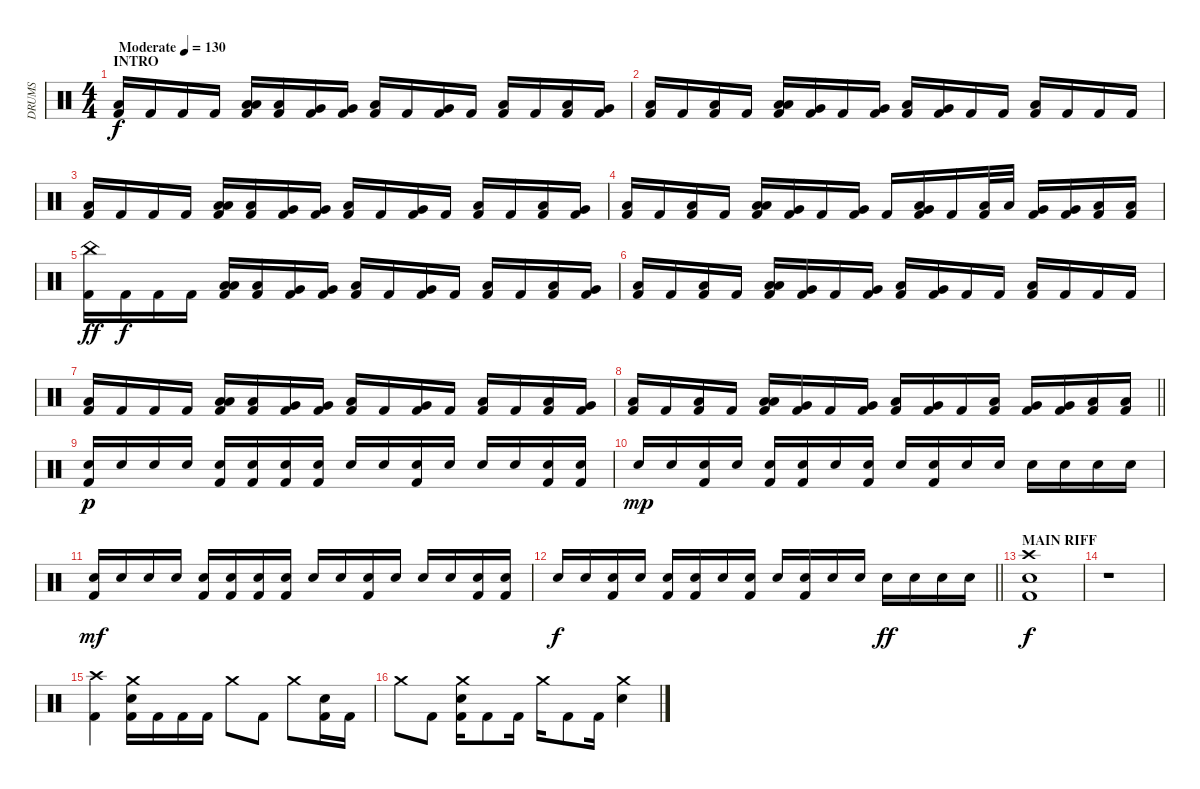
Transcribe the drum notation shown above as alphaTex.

\track ("DRUMS" "DRUMS") {instrument percussion}
\staff {score}
\articulation defaults
\ts (4 4)
\section ("" "INTRO")
\tempo (130 "Moderate")
\clef neutral
\ks c
("Low Floor Tom (hit)" "Kick (hit) 2").16{dy f} "Kick (hit) 2".16 "Kick (hit) 2".16 "Kick (hit) 2".16 ("Low Tom (hit)" "Low Floor Tom (hit)" "Kick (hit) 2").16 ("Low Tom (hit)" "Kick (hit) 2").16 ("Very Low Tom (hit)" "Kick (hit) 2").16 ("Very Low Tom (hit)" "Kick (hit) 2").16 ("Low Floor Tom (hit)" "Kick (hit) 2").16 "Kick (hit) 2".16 ("Very Low Tom (hit)" "Kick (hit) 2").16 "Kick (hit) 2".16 ("Low Floor Tom (hit)" "Kick (hit) 2").16 "Kick (hit) 2".16 ("Low Tom (hit)" "Kick (hit) 2").16 ("Very Low Tom (hit)" "Kick (hit) 2").16 |
("Low Floor Tom (hit)" "Kick (hit) 2").16 "Kick (hit) 2".16 ("Low Tom (hit)" "Kick (hit) 2").16 "Kick (hit) 2".16 ("Low Tom (hit)" "Low Floor Tom (hit)" "Kick (hit) 2").16 ("Very Low Tom (hit)" "Kick (hit) 2").16 "Kick (hit) 2".16 ("Very Low Tom (hit)" "Kick (hit) 2").16 ("Low Floor Tom (hit)" "Kick (hit) 2").16 ("Very Low Tom (hit)" "Kick (hit) 2").16 "Kick (hit) 2".16 "Kick (hit) 2".16 ("Low Floor Tom (hit)" "Kick (hit) 2").16 "Kick (hit) 2".16 "Kick (hit) 2".16 "Kick (hit) 2".16 |
("Low Floor Tom (hit)" "Kick (hit) 2").16 "Kick (hit) 2".16 "Kick (hit) 2".16 "Kick (hit) 2".16 ("Low Tom (hit)" "Low Floor Tom (hit)" "Kick (hit) 2").16 ("Low Tom (hit)" "Kick (hit) 2").16 ("Very Low Tom (hit)" "Kick (hit) 2").16 ("Very Low Tom (hit)" "Kick (hit) 2").16 ("Low Floor Tom (hit)" "Kick (hit) 2").16 "Kick (hit) 2".16 ("Very Low Tom (hit)" "Kick (hit) 2").16 "Kick (hit) 2".16 ("Low Floor Tom (hit)" "Kick (hit) 2").16 "Kick (hit) 2".16 ("Low Tom (hit)" "Kick (hit) 2").16 ("Very Low Tom (hit)" "Kick (hit) 2").16 |
("Low Floor Tom (hit)" "Kick (hit) 2").16 "Kick (hit) 2".16 ("Low Tom (hit)" "Kick (hit) 2").16 "Kick (hit) 2".16 ("Low Tom (hit)" "Low Floor Tom (hit)" "Kick (hit) 2").16 ("Very Low Tom (hit)" "Kick (hit) 2").16 "Kick (hit) 2".16 ("Very Low Tom (hit)" "Kick (hit) 2").16 "Kick (hit) 2".16 ("Very Low Tom (hit)" "Low Floor Tom (hit)" "Kick (hit) 2").16 "Kick (hit) 2".16 ("Low Tom (hit)" "Kick (hit) 2").32 "Low Tom (hit)".32 ("Very Low Tom (hit)" "Kick (hit) 2").16 ("Very Low Tom (hit)" "Kick (hit) 2").16 ("Low Floor Tom (hit)" "Kick (hit) 2").16 ("Low Floor Tom (hit)" "Kick (hit) 2").16 |
("China (hit)" "Kick (hit) 2").16{dy ff} "Kick (hit) 2".16{dy f} "Kick (hit) 2".16 "Kick (hit) 2".16 ("Low Tom (hit)" "Low Floor Tom (hit)" "Kick (hit) 2").16 ("Low Tom (hit)" "Kick (hit) 2").16 ("Very Low Tom (hit)" "Kick (hit) 2").16 ("Very Low Tom (hit)" "Kick (hit) 2").16 ("Low Floor Tom (hit)" "Kick (hit) 2").16 "Kick (hit) 2".16 ("Very Low Tom (hit)" "Kick (hit) 2").16 "Kick (hit) 2".16 ("Low Floor Tom (hit)" "Kick (hit) 2").16 "Kick (hit) 2".16 ("Low Tom (hit)" "Kick (hit) 2").16 ("Very Low Tom (hit)" "Kick (hit) 2").16 |
("Low Floor Tom (hit)" "Kick (hit) 2").16 "Kick (hit) 2".16 ("Low Tom (hit)" "Kick (hit) 2").16 "Kick (hit) 2".16 ("Low Tom (hit)" "Low Floor Tom (hit)" "Kick (hit) 2").16 ("Very Low Tom (hit)" "Kick (hit) 2").16 "Kick (hit) 2".16 ("Very Low Tom (hit)" "Kick (hit) 2").16 ("Low Floor Tom (hit)" "Kick (hit) 2").16 ("Very Low Tom (hit)" "Kick (hit) 2").16 "Kick (hit) 2".16 "Kick (hit) 2".16 ("Low Floor Tom (hit)" "Kick (hit) 2").16 "Kick (hit) 2".16 "Kick (hit) 2".16 "Kick (hit) 2".16 |
("Low Floor Tom (hit)" "Kick (hit) 2").16 "Kick (hit) 2".16 "Kick (hit) 2".16 "Kick (hit) 2".16 ("Low Tom (hit)" "Low Floor Tom (hit)" "Kick (hit) 2").16 ("Low Tom (hit)" "Kick (hit) 2").16 ("Very Low Tom (hit)" "Kick (hit) 2").16 ("Very Low Tom (hit)" "Kick (hit) 2").16 ("Low Floor Tom (hit)" "Kick (hit) 2").16 "Kick (hit) 2".16 ("Very Low Tom (hit)" "Kick (hit) 2").16 "Kick (hit) 2".16 ("Low Floor Tom (hit)" "Kick (hit) 2").16 "Kick (hit) 2".16 ("Low Tom (hit)" "Kick (hit) 2").16 ("Very Low Tom (hit)" "Kick (hit) 2").16 |
\barLineRight lightlight
("Low Floor Tom (hit)" "Kick (hit) 2").16 "Kick (hit) 2".16 ("Low Tom (hit)" "Kick (hit) 2").16 "Kick (hit) 2".16 ("Low Tom (hit)" "Low Floor Tom (hit)" "Kick (hit) 2").16 ("Very Low Tom (hit)" "Kick (hit) 2").16 "Kick (hit) 2".16 ("Very Low Tom (hit)" "Kick (hit) 2").16 ("Low Floor Tom (hit)" "Kick (hit) 2").16 ("Very Low Tom (hit)" "Kick (hit) 2").16 "Kick (hit) 2".16 ("Low Tom (hit)" "Kick (hit) 2").16 ("Very Low Tom (hit)" "Kick (hit) 2").16 ("Very Low Tom (hit)" "Kick (hit) 2").16 ("Low Floor Tom (hit)" "Kick (hit) 2").16 ("Low Floor Tom (hit)" "Kick (hit) 2").16 |
("Electric Snare (hit)" "Kick (hit) 2").16{dy p} "Electric Snare (hit)".16 "Electric Snare (hit)".16 "Electric Snare (hit)".16 ("Electric Snare (hit)" "Kick (hit) 2").16 ("Electric Snare (hit)" "Kick (hit) 2").16 ("Electric Snare (hit)" "Kick (hit) 2").16 ("Electric Snare (hit)" "Kick (hit) 2").16 "Electric Snare (hit)".16 "Electric Snare (hit)".16 ("Electric Snare (hit)" "Kick (hit) 2").16 "Electric Snare (hit)".16 "Electric Snare (hit)".16 "Electric Snare (hit)".16 ("Electric Snare (hit)" "Kick (hit) 2").16 ("Electric Snare (hit)" "Kick (hit) 2").16 |
"Electric Snare (hit)".16{dy mp} "Electric Snare (hit)".16 ("Electric Snare (hit)" "Kick (hit) 2").16 "Electric Snare (hit)".16 ("Electric Snare (hit)" "Kick (hit) 2").16 ("Electric Snare (hit)" "Kick (hit) 2").16 "Electric Snare (hit)".16 ("Electric Snare (hit)" "Kick (hit) 2").16 "Electric Snare (hit)".16 ("Electric Snare (hit)" "Kick (hit) 2").16 "Electric Snare (hit)".16 "Electric Snare (hit)".16 "Electric Snare (hit)".16 "Electric Snare (hit)".16 "Electric Snare (hit)".16 "Electric Snare (hit)".16 |
("Electric Snare (hit)" "Kick (hit) 2").16{dy mf} "Electric Snare (hit)".16 "Electric Snare (hit)".16 "Electric Snare (hit)".16 ("Electric Snare (hit)" "Kick (hit) 2").16 ("Electric Snare (hit)" "Kick (hit) 2").16 ("Electric Snare (hit)" "Kick (hit) 2").16 ("Electric Snare (hit)" "Kick (hit) 2").16 "Electric Snare (hit)".16 "Electric Snare (hit)".16 ("Electric Snare (hit)" "Kick (hit) 2").16 "Electric Snare (hit)".16 "Electric Snare (hit)".16 "Electric Snare (hit)".16 ("Electric Snare (hit)" "Kick (hit) 2").16 ("Electric Snare (hit)" "Kick (hit) 2").16 |
\barLineRight lightlight "Electric Snare (hit)".16{dy f} "Electric Snare (hit)".16
("Electric Snare (hit)" "Kick (hit) 2").16 "Electric Snare (hit)".16 ("Electric Snare (hit)" "Kick (hit) 2").16 ("Electric Snare (hit)" "Kick (hit) 2").16 "Electric Snare (hit)".16 ("Electric Snare (hit)" "Kick (hit) 2").16 "Electric Snare (hit)".16 ("Electric Snare (hit)" "Kick (hit) 2").16 "Electric Snare (hit)".16 "Electric Snare (hit)".16 "Electric Snare (hit)".16{dy ff} "Electric Snare (hit)".16 "Electric Snare (hit)".16 "Electric Snare (hit)".16 |
\section ("" "MAIN RIFF")
("Crash high (hit)" "Electric Snare (hit)" "Kick (hit) 2").1{dy f} |
r.1 |
("Crash high (hit)" "Kick (hit) 2").4 ("Crash medium (hit)" "Electric Snare (hit)" "Kick (hit) 2").16 "Kick (hit) 2".16 "Kick (hit) 2".16 "Kick (hit) 2".16 "Crash medium (hit)".8 "Kick (hit) 2".8 "Crash medium (hit)".8 ("Electric Snare (hit)" "Kick (hit) 2").16 "Kick (hit) 2".16 |
"Crash medium (hit)".8 "Kick (hit) 2".8 ("Crash medium (hit)" "Electric Snare (hit)" "Kick (hit) 2").16 "Kick (hit) 2".8 "Kick (hit) 2".16 "Crash medium (hit)".16 "Kick (hit) 2".8 "Kick (hit) 2".16 ("Crash medium (hit)" "Electric Snare (hit)").4
